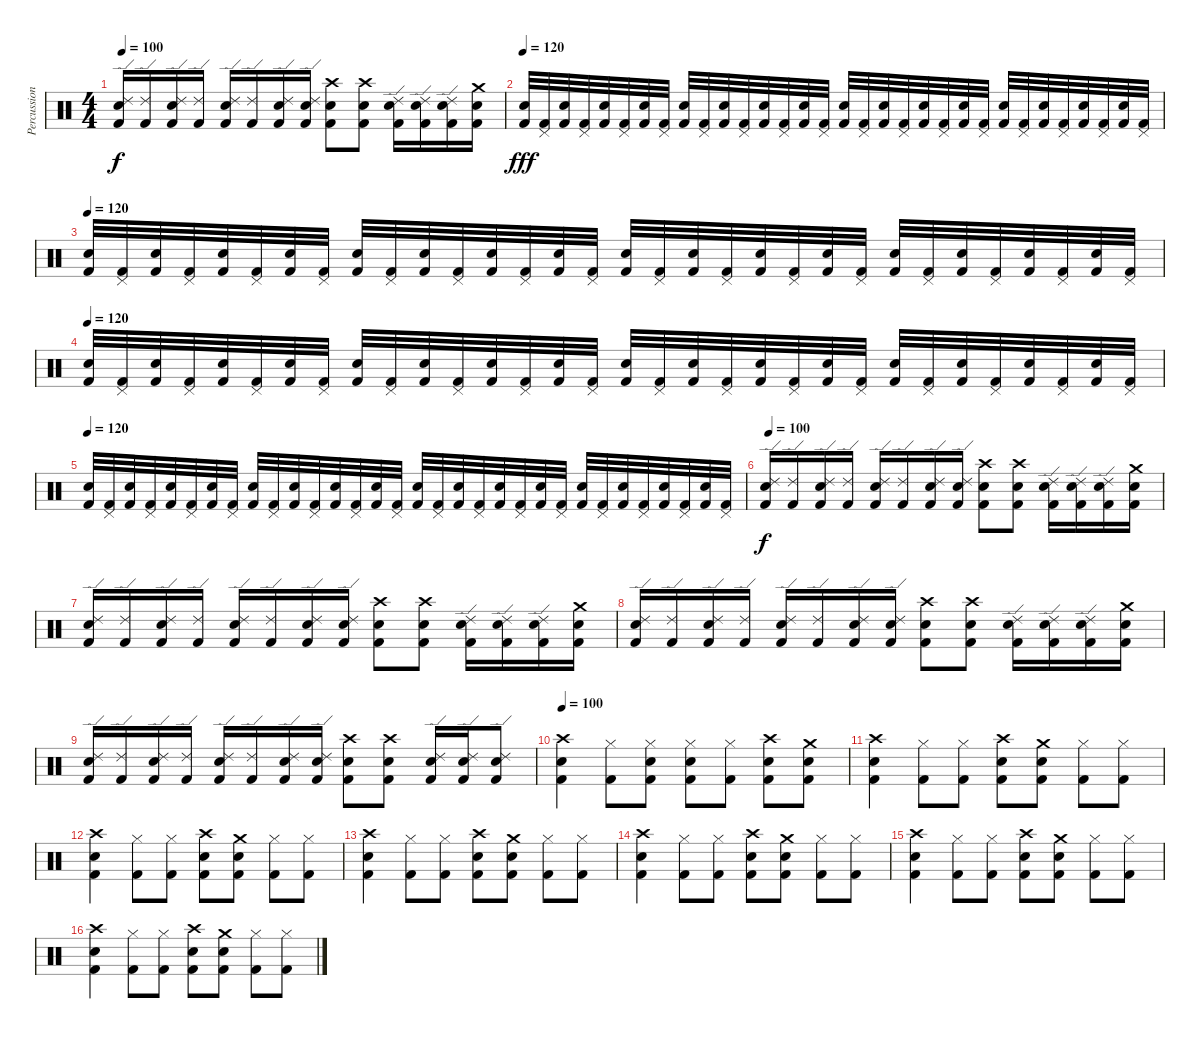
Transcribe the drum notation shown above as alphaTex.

\track ("Percussion" "Percussion") {instrument percussion}
\staff {score}
\articulation defaults
\ts (4 4)
\tempo 100
\clef neutral
\ks c
("Ride (edge) 2" "Snare (hit) 2" "Kick (hit) 2").16{dy f} ("Ride (edge) 2" "Kick (hit) 2").16 ("Ride (edge) 2" "Snare (hit) 2" "Kick (hit) 2").16 ("Ride (edge) 2" "Kick (hit) 2").16 ("Ride (edge) 2" "Snare (hit) 2" "Kick (hit) 2").16 ("Ride (edge) 2" "Kick (hit) 2").16 ("Ride (edge) 2" "Snare (hit) 2" "Kick (hit) 2").16 ("Ride (edge) 2" "Snare (hit) 2" "Kick (hit) 2").16 ("Crash high (hit)" "Snare (hit) 2" "Kick (hit) 2").8 ("Crash high (hit)" "Snare (hit) 2" "Kick (hit) 2").8 ("Ride (edge) 2" "Snare (hit) 2" "Kick (hit) 2").16 ("Ride (edge) 2" "Snare (hit) 2" "Kick (hit) 2").16 ("Ride (edge) 2" "Snare (hit) 2" "Kick (hit) 2").16 ("Crash medium (hit)" "Snare (hit) 2" "Kick (hit) 2").16 |
\tempo 120
("Snare (hit) 2" "Kick (hit) 2").32{dy fff} ("Pedal Hi-Hat (hit)" "Kick (hit) 2").32 ("Snare (hit) 2" "Kick (hit) 2").32 ("Pedal Hi-Hat (hit)" "Kick (hit) 2").32 ("Snare (hit) 2" "Kick (hit) 2").32 ("Pedal Hi-Hat (hit)" "Kick (hit) 2").32 ("Snare (hit) 2" "Kick (hit) 2").32 ("Pedal Hi-Hat (hit)" "Kick (hit) 2").32 ("Snare (hit) 2" "Kick (hit) 2").32 ("Pedal Hi-Hat (hit)" "Kick (hit) 2").32 ("Snare (hit) 2" "Kick (hit) 2").32 ("Pedal Hi-Hat (hit)" "Kick (hit) 2").32 ("Snare (hit) 2" "Kick (hit) 2").32 ("Pedal Hi-Hat (hit)" "Kick (hit) 2").32 ("Snare (hit) 2" "Kick (hit) 2").32 ("Pedal Hi-Hat (hit)" "Kick (hit) 2").32 ("Snare (hit) 2" "Kick (hit) 2").32 ("Pedal Hi-Hat (hit)" "Kick (hit) 2").32 ("Snare (hit) 2" "Kick (hit) 2").32 ("Pedal Hi-Hat (hit)" "Kick (hit) 2").32 ("Snare (hit) 2" "Kick (hit) 2").32 ("Pedal Hi-Hat (hit)" "Kick (hit) 2").32 ("Snare (hit) 2" "Kick (hit) 2").32 ("Pedal Hi-Hat (hit)" "Kick (hit) 2").32 ("Snare (hit) 2" "Kick (hit) 2").32 ("Pedal Hi-Hat (hit)" "Kick (hit) 2").32 ("Snare (hit) 2" "Kick (hit) 2").32 ("Pedal Hi-Hat (hit)" "Kick (hit) 2").32 ("Snare (hit) 2" "Kick (hit) 2").32 ("Pedal Hi-Hat (hit)" "Kick (hit) 2").32 ("Snare (hit) 2" "Kick (hit) 2").32 ("Pedal Hi-Hat (hit)" "Kick (hit) 2").32 |
\tempo 120
("Snare (hit) 2" "Kick (hit) 2").32 ("Pedal Hi-Hat (hit)" "Kick (hit) 2").32 ("Snare (hit) 2" "Kick (hit) 2").32 ("Pedal Hi-Hat (hit)" "Kick (hit) 2").32 ("Snare (hit) 2" "Kick (hit) 2").32 ("Pedal Hi-Hat (hit)" "Kick (hit) 2").32 ("Snare (hit) 2" "Kick (hit) 2").32 ("Pedal Hi-Hat (hit)" "Kick (hit) 2").32 ("Snare (hit) 2" "Kick (hit) 2").32 ("Pedal Hi-Hat (hit)" "Kick (hit) 2").32 ("Snare (hit) 2" "Kick (hit) 2").32 ("Pedal Hi-Hat (hit)" "Kick (hit) 2").32 ("Snare (hit) 2" "Kick (hit) 2").32 ("Pedal Hi-Hat (hit)" "Kick (hit) 2").32 ("Snare (hit) 2" "Kick (hit) 2").32 ("Pedal Hi-Hat (hit)" "Kick (hit) 2").32 ("Snare (hit) 2" "Kick (hit) 2").32 ("Pedal Hi-Hat (hit)" "Kick (hit) 2").32 ("Snare (hit) 2" "Kick (hit) 2").32 ("Pedal Hi-Hat (hit)" "Kick (hit) 2").32 ("Snare (hit) 2" "Kick (hit) 2").32 ("Pedal Hi-Hat (hit)" "Kick (hit) 2").32 ("Snare (hit) 2" "Kick (hit) 2").32 ("Pedal Hi-Hat (hit)" "Kick (hit) 2").32 ("Snare (hit) 2" "Kick (hit) 2").32 ("Pedal Hi-Hat (hit)" "Kick (hit) 2").32 ("Snare (hit) 2" "Kick (hit) 2").32 ("Pedal Hi-Hat (hit)" "Kick (hit) 2").32 ("Snare (hit) 2" "Kick (hit) 2").32 ("Pedal Hi-Hat (hit)" "Kick (hit) 2").32 ("Snare (hit) 2" "Kick (hit) 2").32 ("Pedal Hi-Hat (hit)" "Kick (hit) 2").32 |
\tempo 120
("Snare (hit) 2" "Kick (hit) 2").32 ("Pedal Hi-Hat (hit)" "Kick (hit) 2").32 ("Snare (hit) 2" "Kick (hit) 2").32 ("Pedal Hi-Hat (hit)" "Kick (hit) 2").32 ("Snare (hit) 2" "Kick (hit) 2").32 ("Pedal Hi-Hat (hit)" "Kick (hit) 2").32 ("Snare (hit) 2" "Kick (hit) 2").32 ("Pedal Hi-Hat (hit)" "Kick (hit) 2").32 ("Snare (hit) 2" "Kick (hit) 2").32 ("Pedal Hi-Hat (hit)" "Kick (hit) 2").32 ("Snare (hit) 2" "Kick (hit) 2").32 ("Pedal Hi-Hat (hit)" "Kick (hit) 2").32 ("Snare (hit) 2" "Kick (hit) 2").32 ("Pedal Hi-Hat (hit)" "Kick (hit) 2").32 ("Snare (hit) 2" "Kick (hit) 2").32 ("Pedal Hi-Hat (hit)" "Kick (hit) 2").32 ("Snare (hit) 2" "Kick (hit) 2").32 ("Pedal Hi-Hat (hit)" "Kick (hit) 2").32 ("Snare (hit) 2" "Kick (hit) 2").32 ("Pedal Hi-Hat (hit)" "Kick (hit) 2").32 ("Snare (hit) 2" "Kick (hit) 2").32 ("Pedal Hi-Hat (hit)" "Kick (hit) 2").32 ("Snare (hit) 2" "Kick (hit) 2").32 ("Pedal Hi-Hat (hit)" "Kick (hit) 2").32 ("Snare (hit) 2" "Kick (hit) 2").32 ("Pedal Hi-Hat (hit)" "Kick (hit) 2").32 ("Snare (hit) 2" "Kick (hit) 2").32 ("Pedal Hi-Hat (hit)" "Kick (hit) 2").32 ("Snare (hit) 2" "Kick (hit) 2").32 ("Pedal Hi-Hat (hit)" "Kick (hit) 2").32 ("Snare (hit) 2" "Kick (hit) 2").32 ("Pedal Hi-Hat (hit)" "Kick (hit) 2").32 |
\tempo 120
("Snare (hit) 2" "Kick (hit) 2").32 ("Pedal Hi-Hat (hit)" "Kick (hit) 2").32 ("Snare (hit) 2" "Kick (hit) 2").32 ("Pedal Hi-Hat (hit)" "Kick (hit) 2").32 ("Snare (hit) 2" "Kick (hit) 2").32 ("Pedal Hi-Hat (hit)" "Kick (hit) 2").32 ("Snare (hit) 2" "Kick (hit) 2").32 ("Pedal Hi-Hat (hit)" "Kick (hit) 2").32 ("Snare (hit) 2" "Kick (hit) 2").32 ("Pedal Hi-Hat (hit)" "Kick (hit) 2").32 ("Snare (hit) 2" "Kick (hit) 2").32 ("Pedal Hi-Hat (hit)" "Kick (hit) 2").32 ("Snare (hit) 2" "Kick (hit) 2").32 ("Pedal Hi-Hat (hit)" "Kick (hit) 2").32 ("Snare (hit) 2" "Kick (hit) 2").32 ("Pedal Hi-Hat (hit)" "Kick (hit) 2").32 ("Snare (hit) 2" "Kick (hit) 2").32 ("Pedal Hi-Hat (hit)" "Kick (hit) 2").32 ("Snare (hit) 2" "Kick (hit) 2").32 ("Pedal Hi-Hat (hit)" "Kick (hit) 2").32 ("Snare (hit) 2" "Kick (hit) 2").32 ("Pedal Hi-Hat (hit)" "Kick (hit) 2").32 ("Snare (hit) 2" "Kick (hit) 2").32 ("Pedal Hi-Hat (hit)" "Kick (hit) 2").32 ("Snare (hit) 2" "Kick (hit) 2").32 ("Pedal Hi-Hat (hit)" "Kick (hit) 2").32 ("Snare (hit) 2" "Kick (hit) 2").32 ("Pedal Hi-Hat (hit)" "Kick (hit) 2").32 ("Snare (hit) 2" "Kick (hit) 2").32 ("Pedal Hi-Hat (hit)" "Kick (hit) 2").32 ("Snare (hit) 2" "Kick (hit) 2").32 ("Pedal Hi-Hat (hit)" "Kick (hit) 2").32 |
\tempo 100
("Ride (edge) 2" "Snare (hit) 2" "Kick (hit) 2").16{dy f} ("Ride (edge) 2" "Kick (hit) 2").16 ("Ride (edge) 2" "Snare (hit) 2" "Kick (hit) 2").16 ("Ride (edge) 2" "Kick (hit) 2").16 ("Ride (edge) 2" "Snare (hit) 2" "Kick (hit) 2").16 ("Ride (edge) 2" "Kick (hit) 2").16 ("Ride (edge) 2" "Snare (hit) 2" "Kick (hit) 2").16 ("Ride (edge) 2" "Snare (hit) 2" "Kick (hit) 2").16 ("Crash high (hit)" "Snare (hit) 2" "Kick (hit) 2").8 ("Crash high (hit)" "Snare (hit) 2" "Kick (hit) 2").8 ("Ride (edge) 2" "Snare (hit) 2" "Kick (hit) 2").16 ("Ride (edge) 2" "Snare (hit) 2" "Kick (hit) 2").16 ("Ride (edge) 2" "Snare (hit) 2" "Kick (hit) 2").16 ("Crash medium (hit)" "Snare (hit) 2" "Kick (hit) 2").16 |
("Ride (edge) 2" "Snare (hit) 2" "Kick (hit) 2").16 ("Ride (edge) 2" "Kick (hit) 2").16 ("Ride (edge) 2" "Snare (hit) 2" "Kick (hit) 2").16 ("Ride (edge) 2" "Kick (hit) 2").16 ("Ride (edge) 2" "Snare (hit) 2" "Kick (hit) 2").16 ("Ride (edge) 2" "Kick (hit) 2").16 ("Ride (edge) 2" "Snare (hit) 2" "Kick (hit) 2").16 ("Ride (edge) 2" "Snare (hit) 2" "Kick (hit) 2").16 ("Crash high (hit)" "Snare (hit) 2" "Kick (hit) 2").8 ("Crash high (hit)" "Snare (hit) 2" "Kick (hit) 2").8 ("Ride (edge) 2" "Snare (hit) 2" "Kick (hit) 2").16 ("Ride (edge) 2" "Snare (hit) 2" "Kick (hit) 2").16 ("Ride (edge) 2" "Snare (hit) 2" "Kick (hit) 2").16 ("Crash medium (hit)" "Snare (hit) 2" "Kick (hit) 2").16 |
("Ride (edge) 2" "Snare (hit) 2" "Kick (hit) 2").16 ("Ride (edge) 2" "Kick (hit) 2").16 ("Ride (edge) 2" "Snare (hit) 2" "Kick (hit) 2").16 ("Ride (edge) 2" "Kick (hit) 2").16 ("Ride (edge) 2" "Snare (hit) 2" "Kick (hit) 2").16 ("Ride (edge) 2" "Kick (hit) 2").16 ("Ride (edge) 2" "Snare (hit) 2" "Kick (hit) 2").16 ("Ride (edge) 2" "Snare (hit) 2" "Kick (hit) 2").16 ("Crash high (hit)" "Snare (hit) 2" "Kick (hit) 2").8 ("Crash high (hit)" "Snare (hit) 2" "Kick (hit) 2").8 ("Ride (edge) 2" "Snare (hit) 2" "Kick (hit) 2").16 ("Ride (edge) 2" "Snare (hit) 2" "Kick (hit) 2").16 ("Ride (edge) 2" "Snare (hit) 2" "Kick (hit) 2").16 ("Crash medium (hit)" "Snare (hit) 2" "Kick (hit) 2").16 |
("Ride (edge) 2" "Snare (hit) 2" "Kick (hit) 2").16 ("Ride (edge) 2" "Kick (hit) 2").16 ("Ride (edge) 2" "Snare (hit) 2" "Kick (hit) 2").16 ("Ride (edge) 2" "Kick (hit) 2").16 ("Ride (edge) 2" "Snare (hit) 2" "Kick (hit) 2").16 ("Ride (edge) 2" "Kick (hit) 2").16 ("Ride (edge) 2" "Snare (hit) 2" "Kick (hit) 2").16 ("Ride (edge) 2" "Snare (hit) 2" "Kick (hit) 2").16 ("Crash high (hit)" "Snare (hit) 2" "Kick (hit) 2").8 ("Crash high (hit)" "Snare (hit) 2" "Kick (hit) 2").8 ("Ride (edge) 2" "Snare (hit) 2" "Kick (hit) 2").16 ("Ride (edge) 2" "Snare (hit) 2" "Kick (hit) 2").16 ("Ride (edge) 2" "Snare (hit) 2" "Kick (hit) 2").8 |
\tempo 100
("Crash high (hit)" "Snare (hit) 2" "Kick (hit) 2").4 ("Hi-Hat (closed)" "Kick (hit) 2").8 ("Hi-Hat (closed)" "Snare (hit) 2" "Kick (hit) 2").8 ("Hi-Hat (closed)" "Snare (hit) 2" "Kick (hit) 2").8 ("Hi-Hat (closed)" "Kick (hit) 2").8 ("Crash high (hit)" "Snare (hit) 2" "Kick (hit) 2").8 ("Crash medium (hit)" "Snare (hit) 2" "Kick (hit) 2").8 |
("Crash high (hit)" "Snare (hit) 2" "Kick (hit) 2").4 ("Hi-Hat (closed)" "Kick (hit) 2").8 ("Hi-Hat (closed)" "Kick (hit) 2").8 ("Crash high (hit)" "Snare (hit) 2" "Kick (hit) 2").8 ("Crash medium (hit)" "Snare (hit) 2" "Kick (hit) 2").8 ("Hi-Hat (closed)" "Kick (hit) 2").8 ("Hi-Hat (closed)" "Kick (hit) 2").8 |
("Crash high (hit)" "Snare (hit) 2" "Kick (hit) 2").4 ("Hi-Hat (closed)" "Kick (hit) 2").8 ("Hi-Hat (closed)" "Kick (hit) 2").8 ("Crash high (hit)" "Snare (hit) 2" "Kick (hit) 2").8 ("Crash medium (hit)" "Snare (hit) 2" "Kick (hit) 2").8 ("Hi-Hat (closed)" "Kick (hit) 2").8 ("Hi-Hat (closed)" "Kick (hit) 2").8 |
("Crash high (hit)" "Snare (hit) 2" "Kick (hit) 2").4 ("Hi-Hat (closed)" "Kick (hit) 2").8 ("Hi-Hat (closed)" "Kick (hit) 2").8 ("Crash high (hit)" "Snare (hit) 2" "Kick (hit) 2").8 ("Crash medium (hit)" "Snare (hit) 2" "Kick (hit) 2").8 ("Hi-Hat (closed)" "Kick (hit) 2").8 ("Hi-Hat (closed)" "Kick (hit) 2").8 |
("Crash high (hit)" "Snare (hit) 2" "Kick (hit) 2").4{volume 0} ("Hi-Hat (closed)" "Kick (hit) 2").8 ("Hi-Hat (closed)" "Kick (hit) 2").8 ("Crash high (hit)" "Snare (hit) 2" "Kick (hit) 2").8 ("Crash medium (hit)" "Snare (hit) 2" "Kick (hit) 2").8 ("Hi-Hat (closed)" "Kick (hit) 2").8 ("Hi-Hat (closed)" "Kick (hit) 2").8 |
("Crash high (hit)" "Snare (hit) 2" "Kick (hit) 2").4 ("Hi-Hat (closed)" "Kick (hit) 2").8 ("Hi-Hat (closed)" "Kick (hit) 2").8 ("Crash high (hit)" "Snare (hit) 2" "Kick (hit) 2").8 ("Crash medium (hit)" "Snare (hit) 2" "Kick (hit) 2").8 ("Hi-Hat (closed)" "Kick (hit) 2").8 ("Hi-Hat (closed)" "Kick (hit) 2").8 |
("Crash high (hit)" "Snare (hit) 2" "Kick (hit) 2").4 ("Hi-Hat (closed)" "Kick (hit) 2").8 ("Hi-Hat (closed)" "Kick (hit) 2").8 ("Crash high (hit)" "Snare (hit) 2" "Kick (hit) 2").8 ("Crash medium (hit)" "Snare (hit) 2" "Kick (hit) 2").8 ("Hi-Hat (closed)" "Kick (hit) 2").8 ("Hi-Hat (closed)" "Kick (hit) 2").8
